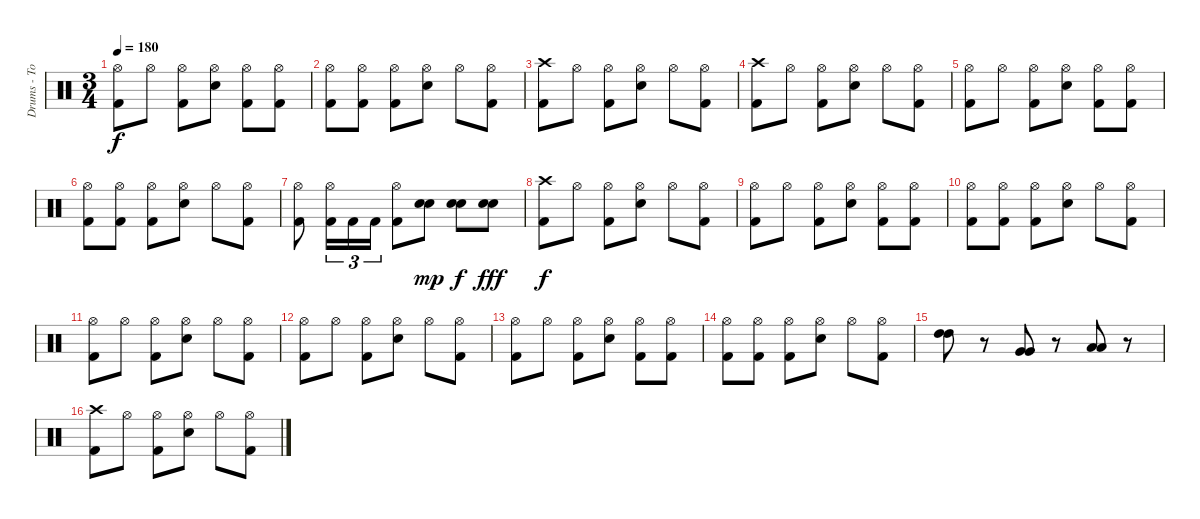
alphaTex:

\track ("Drums - Tomas" "Drums - To") {instrument percussion}
\staff {score}
\articulation defaults
\ts (3 4)
\tempo 180
\clef neutral
\ks c
("Hi-Hat (open)" "Kick (hit) 2").8{dy f} "Hi-Hat (open)".8 ("Hi-Hat (open)" "Kick (hit) 2").8 ("Hi-Hat (open)" "Electric Snare (hit)").8 ("Hi-Hat (open)" "Kick (hit) 2").8 ("Hi-Hat (open)" "Kick (hit) 2").8 |
("Hi-Hat (open)" "Kick (hit) 2").8 ("Hi-Hat (open)" "Kick (hit) 2").8 ("Hi-Hat (open)" "Kick (hit) 2").8 ("Hi-Hat (open)" "Electric Snare (hit)").8 "Hi-Hat (open)".8 ("Hi-Hat (open)" "Kick (hit) 2").8 |
("Crash high (hit)" "Kick (hit) 2").8 "Hi-Hat (open)".8 ("Hi-Hat (open)" "Kick (hit) 2").8 ("Hi-Hat (open)" "Electric Snare (hit)").8 "Hi-Hat (open)".8 ("Hi-Hat (open)" "Kick (hit) 2").8 |
("Crash high (hit)" "Kick (hit) 2").8 "Hi-Hat (open)".8 ("Hi-Hat (open)" "Kick (hit) 2").8 ("Hi-Hat (open)" "Electric Snare (hit)").8 "Hi-Hat (open)".8 ("Hi-Hat (open)" "Kick (hit) 2").8 |
("Hi-Hat (open)" "Kick (hit) 2").8 "Hi-Hat (open)".8 ("Hi-Hat (open)" "Kick (hit) 2").8 ("Hi-Hat (open)" "Electric Snare (hit)").8 ("Hi-Hat (open)" "Kick (hit) 2").8 ("Hi-Hat (open)" "Kick (hit) 2").8 |
("Hi-Hat (open)" "Kick (hit) 2").8 ("Hi-Hat (open)" "Kick (hit) 2").8 ("Hi-Hat (open)" "Kick (hit) 2").8 ("Hi-Hat (open)" "Electric Snare (hit)").8 "Hi-Hat (open)".8 ("Hi-Hat (open)" "Kick (hit) 2").8 |
("Hi-Hat (open)" "Kick (hit) 2").8 ("Hi-Hat (open)" "Kick (hit) 2").16{tu (3 2)} "Kick (hit) 2".16{tu (3 2)} "Kick (hit) 2".16{tu (3 2)} ("Hi-Hat (open)" "Kick (hit) 2").8 ("Electric Snare (hit)" "Electric Snare (hit)").8{dy mp} ("Electric Snare (hit)" "Electric Snare (hit)").8{dy f} ("Electric Snare (hit)" "Electric Snare (hit)").8{dy fff} |
("Crash high (hit)" "Kick (hit) 2").8{dy f} "Hi-Hat (open)".8 ("Hi-Hat (open)" "Kick (hit) 2").8 ("Hi-Hat (open)" "Electric Snare (hit)").8 "Hi-Hat (open)".8 ("Hi-Hat (open)" "Kick (hit) 2").8 |
("Hi-Hat (open)" "Kick (hit) 2").8 "Hi-Hat (open)".8 ("Hi-Hat (open)" "Kick (hit) 2").8 ("Hi-Hat (open)" "Electric Snare (hit)").8 ("Hi-Hat (open)" "Kick (hit) 2").8 ("Hi-Hat (open)" "Kick (hit) 2").8 |
("Hi-Hat (open)" "Kick (hit) 2").8 ("Hi-Hat (open)" "Kick (hit) 2").8 ("Hi-Hat (open)" "Kick (hit) 2").8 ("Hi-Hat (open)" "Electric Snare (hit)").8 "Hi-Hat (open)".8 ("Hi-Hat (open)" "Kick (hit) 2").8 |
("Hi-Hat (open)" "Kick (hit) 2").8 "Hi-Hat (open)".8 ("Hi-Hat (open)" "Kick (hit) 2").8 ("Hi-Hat (open)" "Electric Snare (hit)").8 "Hi-Hat (open)".8 ("Hi-Hat (open)" "Kick (hit) 2").8 |
("Hi-Hat (open)" "Kick (hit) 2").8 "Hi-Hat (open)".8 ("Hi-Hat (open)" "Kick (hit) 2").8 ("Hi-Hat (open)" "Electric Snare (hit)").8 "Hi-Hat (open)".8 ("Hi-Hat (open)" "Kick (hit) 2").8 |
("Hi-Hat (open)" "Kick (hit) 2").8 "Hi-Hat (open)".8 ("Hi-Hat (open)" "Kick (hit) 2").8 ("Hi-Hat (open)" "Electric Snare (hit)").8 ("Hi-Hat (open)" "Kick (hit) 2").8 ("Hi-Hat (open)" "Kick (hit) 2").8 |
("Hi-Hat (open)" "Kick (hit) 2").8 ("Hi-Hat (open)" "Kick (hit) 2").8 ("Hi-Hat (open)" "Kick (hit) 2").8 ("Hi-Hat (open)" "Electric Snare (hit)").8 "Hi-Hat (open)".8 ("Hi-Hat (open)" "Kick (hit) 2").8 |
("High Tom (hit)" "High Tom (hit)").8 r.8 ("Very Low Tom (hit)" "Very Low Tom (hit)").8 r.8 ("Low Tom (hit)" "Low Tom (hit)").8 r.8 |
("Crash high (hit)" "Kick (hit) 2").8 "Hi-Hat (open)".8 ("Hi-Hat (open)" "Kick (hit) 2").8 ("Hi-Hat (open)" "Electric Snare (hit)").8 "Hi-Hat (open)".8 ("Hi-Hat (open)" "Kick (hit) 2").8
